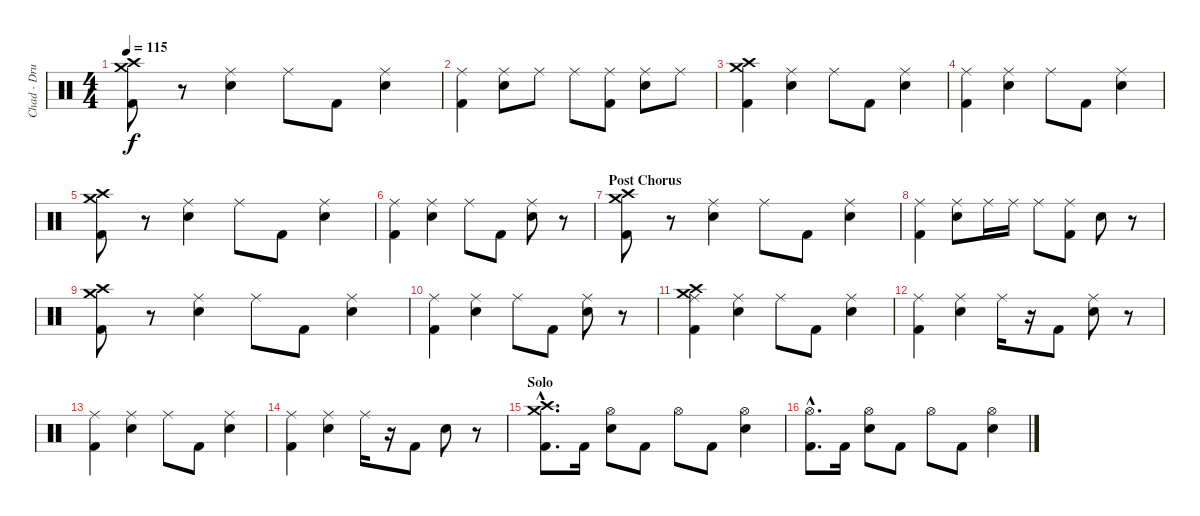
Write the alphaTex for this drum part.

\track ("Chad - Drums" "Chad - Dru") {instrument percussion}
\staff {score}
\articulation defaults
\ts (4 4)
\tempo 115
\clef neutral
\ks c
("Crash high (hit)" "Crash medium (hit)" "Kick (hit) 2").8{dy f} r.8 ("Electric Snare (hit)" "Ride (middle)").4 "Ride (middle)".8 "Kick (hit) 2".8 ("Electric Snare (hit)" "Ride (middle)").4 |
("Kick (hit) 2" "Ride (middle)").4 ("Electric Snare (hit)" "Ride (middle)").8 "Ride (middle)".8 "Ride (middle)".8 ("Ride (middle)" "Kick (hit) 2").8 ("Electric Snare (hit)" "Ride (middle)").8 "Ride (middle)".8 |
("Crash high (hit)" "Crash medium (hit)" "Kick (hit) 2").4 ("Electric Snare (hit)" "Ride (middle)").4 "Ride (middle)".8 "Kick (hit) 2".8 ("Electric Snare (hit)" "Ride (middle)").4 |
("Kick (hit) 2" "Ride (middle)").4 ("Electric Snare (hit)" "Ride (middle)").4 "Ride (middle)".8 "Kick (hit) 2".8 ("Electric Snare (hit)" "Ride (middle)").4 |
("Crash high (hit)" "Crash medium (hit)" "Kick (hit) 2").8 r.8 ("Electric Snare (hit)" "Ride (middle)").4 "Ride (middle)".8 "Kick (hit) 2".8 ("Electric Snare (hit)" "Ride (middle)").4 |
("Kick (hit) 2" "Ride (middle)").4 ("Electric Snare (hit)" "Ride (middle)").4 "Ride (middle)".8 "Kick (hit) 2".8 ("Ride (middle)" "Electric Snare (hit)").8 r.8 |
\section ("" "Post Chorus")
("Kick (hit) 2" "Crash medium (hit)" "Crash high (hit)").8 r.8 ("Electric Snare (hit)" "Ride (middle)").4 "Ride (middle)".8 "Kick (hit) 2".8 ("Electric Snare (hit)" "Ride (middle)").4 |
("Kick (hit) 2" "Ride (middle)").4 ("Electric Snare (hit)" "Ride (middle)").8 "Ride (middle)".16 "Ride (middle)".16 "Ride (middle)".8 ("Kick (hit) 2" "Ride (middle)").8 "Electric Snare (hit)".8 r.8 |
("Crash medium (hit)" "Kick (hit) 2" "Crash high (hit)").8 r.8 ("Electric Snare (hit)" "Ride (middle)").4 "Ride (middle)".8 "Kick (hit) 2".8 ("Electric Snare (hit)" "Ride (middle)").4 |
("Kick (hit) 2" "Ride (middle)").4 ("Electric Snare (hit)" "Ride (middle)").4 "Ride (middle)".8 "Kick (hit) 2".8 ("Electric Snare (hit)" "Ride (middle)").8 r.8 |
("Crash medium (hit)" "Kick (hit) 2" "Crash high (hit)" "Ride (middle)").4 ("Electric Snare (hit)" "Ride (middle)").4 "Ride (middle)".8 "Kick (hit) 2".8 ("Electric Snare (hit)" "Ride (middle)").4 |
("Kick (hit) 2" "Ride (middle)").4 ("Electric Snare (hit)" "Ride (middle)").4 "Ride (middle)".16 r.16 "Kick (hit) 2".8 ("Ride (middle)" "Electric Snare (hit)").8 r.8 |
("Kick (hit) 2" "Ride (middle)").4 ("Electric Snare (hit)" "Ride (middle)").4 "Ride (middle)".8 "Kick (hit) 2".8 ("Electric Snare (hit)" "Ride (middle)").4 |
("Kick (hit) 2" "Ride (middle)").4 ("Electric Snare (hit)" "Ride (middle)").4 "Ride (middle)".16 r.16 "Kick (hit) 2".8 "Electric Snare (hit)".8 r.8 |
\section ("" "Solo")
("Crash medium (hit)"{hac} "Crash high (hit)"{hac} "Kick (hit) 2"{hac}).8{d} "Kick (hit) 2".16 ("Electric Snare (hit)" "Hi-Hat (open)").8 "Kick (hit) 2".8 "Hi-Hat (open)".8 "Kick (hit) 2".8 ("Hi-Hat (open)" "Electric Snare (hit)").4 |
("Hi-Hat (open)"{hac} "Kick (hit) 2"{hac}).8{d} "Kick (hit) 2".16 ("Electric Snare (hit)" "Hi-Hat (open)").8 "Kick (hit) 2".8 "Hi-Hat (open)".8 "Kick (hit) 2".8 ("Electric Snare (hit)" "Hi-Hat (open)").4
